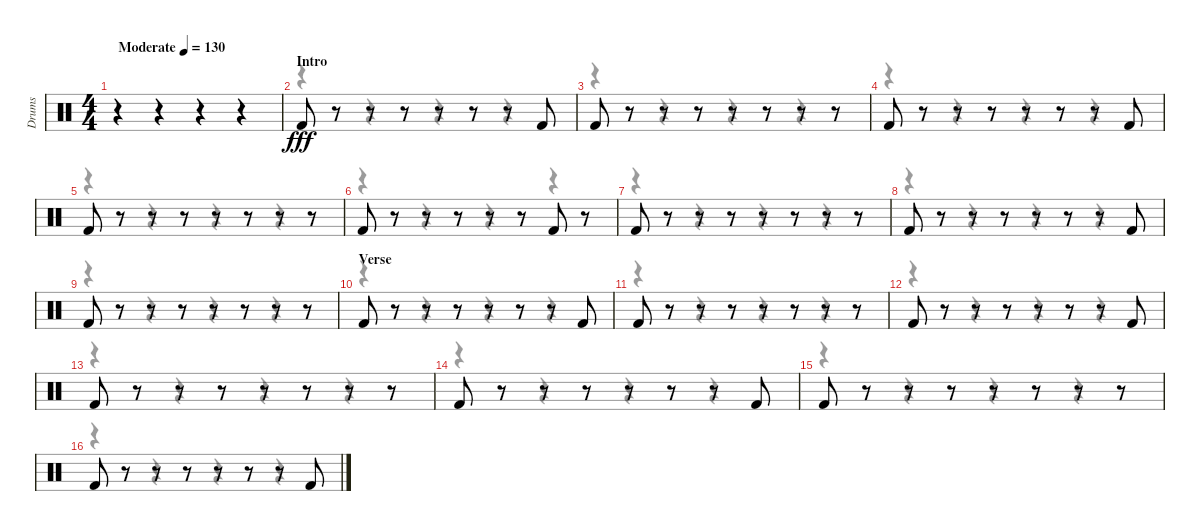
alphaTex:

\track ("Drums" "Drums") {instrument percussion}
\staff {score}
\articulation defaults
\voice
\ts (4 4)
\tempo (130 "Moderate")
\clef neutral
\ks c
r.4{dy fff} r.4 r.4 r.4 |
\section ("" "Intro")
"Kick (hit) 2".8 r.8 r.8 r.8 r.8 r.8 r.8 "Kick (hit) 2".8 |
"Kick (hit) 2".8 r.8 r.8 r.8 r.8 r.8 r.8 r.8 |
"Kick (hit) 2".8 r.8 r.8 r.8 r.8 r.8 r.8 "Kick (hit) 2".8 |
"Kick (hit) 2".8 r.8 r.8 r.8 r.8 r.8 r.8 r.8 |
"Kick (hit) 2".8 r.8 r.8 r.8 r.8 r.8 "Kick (hit) 2".8 r.8 |
"Kick (hit) 2".8 r.8 r.8 r.8 r.8 r.8 r.8 r.8 |
"Kick (hit) 2".8 r.8 r.8 r.8 r.8 r.8 r.8 "Kick (hit) 2".8 |
"Kick (hit) 2".8 r.8 r.8 r.8 r.8 r.8 r.8 r.8 |
\section ("" "Verse")
"Kick (hit) 2".8 r.8 r.8 r.8 r.8 r.8 r.8 "Kick (hit) 2".8 |
"Kick (hit) 2".8 r.8 r.8 r.8 r.8 r.8 r.8 r.8 |
"Kick (hit) 2".8 r.8 r.8 r.8 r.8 r.8 r.8 "Kick (hit) 2".8 |
"Kick (hit) 2".8 r.8 r.8 r.8 r.8 r.8 r.8 r.8 |
"Kick (hit) 2".8 r.8 r.8 r.8 r.8 r.8 r.8 "Kick (hit) 2".8 |
"Kick (hit) 2".8 r.8 r.8 r.8 r.8 r.8 r.8 r.8 |
"Kick (hit) 2".8 r.8 r.8 r.8 r.8 r.8 r.8 "Kick (hit) 2".8
\voice
\clef neutral
\ottava regular
\simile none
\ks c
|
r.4 r.4 r.4 r.4 |
r.4 r.4 r.4 r.4 |
r.4 r.4 r.4 r.4 |
r.4 r.4 r.4 r.4 |
r.4 r.4 r.4 r.4 |
r.4 r.4 r.4 r.4 |
r.4 r.4 r.4 r.4 |
r.4 r.4 r.4 r.4 |
r.4 r.4 r.4 r.4 |
r.4 r.4 r.4 r.4 |
r.4 r.4 r.4 r.4 |
r.4 r.4 r.4 r.4 |
r.4 r.4 r.4 r.4 |
r.4 r.4 r.4 r.4 |
r.4 r.4 r.4 r.4
